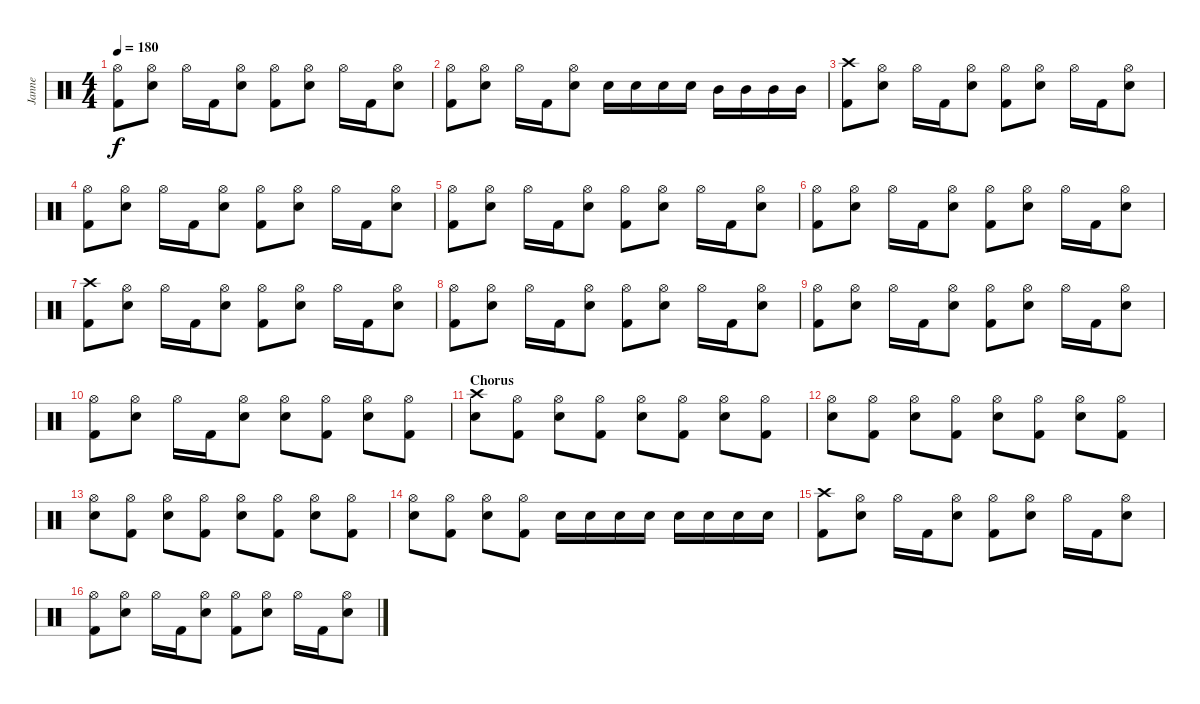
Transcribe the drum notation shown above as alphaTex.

\track ("Janne" "Janne") {instrument percussion}
\staff {score}
\articulation defaults
\ts (4 4)
\tempo 180
\clef neutral
\ks c
("Hi-Hat (open)" "Kick (hit) 2").8{dy f} ("Hi-Hat (open)" "Electric Snare (hit)").8 "Hi-Hat (open)".16 "Kick (hit) 2".16 ("Hi-Hat (open)" "Electric Snare (hit)").8 ("Hi-Hat (open)" "Kick (hit) 2").8 ("Hi-Hat (open)" "Electric Snare (hit)").8 "Hi-Hat (open)".16 "Kick (hit) 2".16 ("Hi-Hat (open)" "Electric Snare (hit)").8 |
("Hi-Hat (open)" "Kick (hit) 2").8 ("Hi-Hat (open)" "Electric Snare (hit)").8 "Hi-Hat (open)".16 "Kick (hit) 2".16 ("Hi-Hat (open)" "Electric Snare (hit)").8 "Electric Snare (hit)".16 "Electric Snare (hit)".16 "Electric Snare (hit)".16 "Electric Snare (hit)".16 "Mid Tom (hit)".16 "Mid Tom (hit)".16 "Mid Tom (hit)".16 "Mid Tom (hit)".16 |
("Crash high (hit)" "Kick (hit) 2").8 ("Hi-Hat (open)" "Electric Snare (hit)").8 "Hi-Hat (open)".16 "Kick (hit) 2".16 ("Hi-Hat (open)" "Electric Snare (hit)").8 ("Hi-Hat (open)" "Kick (hit) 2").8 ("Hi-Hat (open)" "Electric Snare (hit)").8 "Hi-Hat (open)".16 "Kick (hit) 2".16 ("Hi-Hat (open)" "Electric Snare (hit)").8 |
("Hi-Hat (open)" "Kick (hit) 2").8 ("Hi-Hat (open)" "Electric Snare (hit)").8 "Hi-Hat (open)".16 "Kick (hit) 2".16 ("Hi-Hat (open)" "Electric Snare (hit)").8 ("Hi-Hat (open)" "Kick (hit) 2").8 ("Hi-Hat (open)" "Electric Snare (hit)").8 "Hi-Hat (open)".16 "Kick (hit) 2".16 ("Hi-Hat (open)" "Electric Snare (hit)").8 |
("Hi-Hat (open)" "Kick (hit) 2").8 ("Hi-Hat (open)" "Electric Snare (hit)").8 "Hi-Hat (open)".16 "Kick (hit) 2".16 ("Hi-Hat (open)" "Electric Snare (hit)").8 ("Hi-Hat (open)" "Kick (hit) 2").8 ("Hi-Hat (open)" "Electric Snare (hit)").8 "Hi-Hat (open)".16 "Kick (hit) 2".16 ("Hi-Hat (open)" "Electric Snare (hit)").8 |
("Hi-Hat (open)" "Kick (hit) 2").8 ("Hi-Hat (open)" "Electric Snare (hit)").8 "Hi-Hat (open)".16 "Kick (hit) 2".16 ("Hi-Hat (open)" "Electric Snare (hit)").8 ("Hi-Hat (open)" "Kick (hit) 2").8 ("Hi-Hat (open)" "Electric Snare (hit)").8 "Hi-Hat (open)".16 "Kick (hit) 2".16 ("Hi-Hat (open)" "Electric Snare (hit)").8 |
("Crash high (hit)" "Kick (hit) 2").8 ("Hi-Hat (open)" "Electric Snare (hit)").8 "Hi-Hat (open)".16 "Kick (hit) 2".16 ("Hi-Hat (open)" "Electric Snare (hit)").8 ("Hi-Hat (open)" "Kick (hit) 2").8 ("Hi-Hat (open)" "Electric Snare (hit)").8 "Hi-Hat (open)".16 "Kick (hit) 2".16 ("Hi-Hat (open)" "Electric Snare (hit)").8 |
("Hi-Hat (open)" "Kick (hit) 2").8 ("Hi-Hat (open)" "Electric Snare (hit)").8 "Hi-Hat (open)".16 "Kick (hit) 2".16 ("Hi-Hat (open)" "Electric Snare (hit)").8 ("Hi-Hat (open)" "Kick (hit) 2").8 ("Hi-Hat (open)" "Electric Snare (hit)").8 "Hi-Hat (open)".16 "Kick (hit) 2".16 ("Hi-Hat (open)" "Electric Snare (hit)").8 |
("Hi-Hat (open)" "Kick (hit) 2").8 ("Hi-Hat (open)" "Electric Snare (hit)").8 "Hi-Hat (open)".16 "Kick (hit) 2".16 ("Hi-Hat (open)" "Electric Snare (hit)").8 ("Hi-Hat (open)" "Kick (hit) 2").8 ("Hi-Hat (open)" "Electric Snare (hit)").8 "Hi-Hat (open)".16 "Kick (hit) 2".16 ("Hi-Hat (open)" "Electric Snare (hit)").8 |
("Hi-Hat (open)" "Kick (hit) 2").8 ("Hi-Hat (open)" "Electric Snare (hit)").8 "Hi-Hat (open)".16 "Kick (hit) 2".16 ("Hi-Hat (open)" "Electric Snare (hit)").8 ("Hi-Hat (open)" "Electric Snare (hit)").8 ("Hi-Hat (open)" "Kick (hit) 2").8 ("Hi-Hat (open)" "Electric Snare (hit)").8 ("Hi-Hat (open)" "Kick (hit) 2").8 |
\section ("" "Chorus")
("Crash high (hit)" "Electric Snare (hit)").8 ("Hi-Hat (open)" "Kick (hit) 2").8 ("Hi-Hat (open)" "Electric Snare (hit)").8 ("Hi-Hat (open)" "Kick (hit) 2").8 ("Hi-Hat (open)" "Electric Snare (hit)").8 ("Hi-Hat (open)" "Kick (hit) 2").8 ("Hi-Hat (open)" "Electric Snare (hit)").8 ("Hi-Hat (open)" "Kick (hit) 2").8 |
("Hi-Hat (open)" "Electric Snare (hit)").8 ("Hi-Hat (open)" "Kick (hit) 2").8 ("Hi-Hat (open)" "Electric Snare (hit)").8 ("Hi-Hat (open)" "Kick (hit) 2").8 ("Hi-Hat (open)" "Electric Snare (hit)").8 ("Hi-Hat (open)" "Kick (hit) 2").8 ("Hi-Hat (open)" "Electric Snare (hit)").8 ("Hi-Hat (open)" "Kick (hit) 2").8 |
("Hi-Hat (open)" "Electric Snare (hit)").8 ("Hi-Hat (open)" "Kick (hit) 2").8 ("Hi-Hat (open)" "Electric Snare (hit)").8 ("Hi-Hat (open)" "Kick (hit) 2").8 ("Hi-Hat (open)" "Electric Snare (hit)").8 ("Hi-Hat (open)" "Kick (hit) 2").8 ("Hi-Hat (open)" "Electric Snare (hit)").8 ("Hi-Hat (open)" "Kick (hit) 2").8 |
("Hi-Hat (open)" "Electric Snare (hit)").8 ("Hi-Hat (open)" "Kick (hit) 2").8 ("Hi-Hat (open)" "Electric Snare (hit)").8 ("Hi-Hat (open)" "Kick (hit) 2").8 "Electric Snare (hit)".16 "Electric Snare (hit)".16 "Electric Snare (hit)".16 "Electric Snare (hit)".16 "Electric Snare (hit)".16 "Electric Snare (hit)".16 "Electric Snare (hit)".16 "Electric Snare (hit)".16 |
("Crash high (hit)" "Kick (hit) 2").8 ("Hi-Hat (open)" "Electric Snare (hit)").8 "Hi-Hat (open)".16 "Kick (hit) 2".16 ("Hi-Hat (open)" "Electric Snare (hit)").8 ("Hi-Hat (open)" "Kick (hit) 2").8 ("Hi-Hat (open)" "Electric Snare (hit)").8 "Hi-Hat (open)".16 "Kick (hit) 2".16 ("Hi-Hat (open)" "Electric Snare (hit)").8 |
("Hi-Hat (open)" "Kick (hit) 2").8 ("Hi-Hat (open)" "Electric Snare (hit)").8 "Hi-Hat (open)".16 "Kick (hit) 2".16 ("Hi-Hat (open)" "Electric Snare (hit)").8 ("Hi-Hat (open)" "Kick (hit) 2").8 ("Hi-Hat (open)" "Electric Snare (hit)").8 "Hi-Hat (open)".16 "Kick (hit) 2".16 ("Hi-Hat (open)" "Electric Snare (hit)").8
